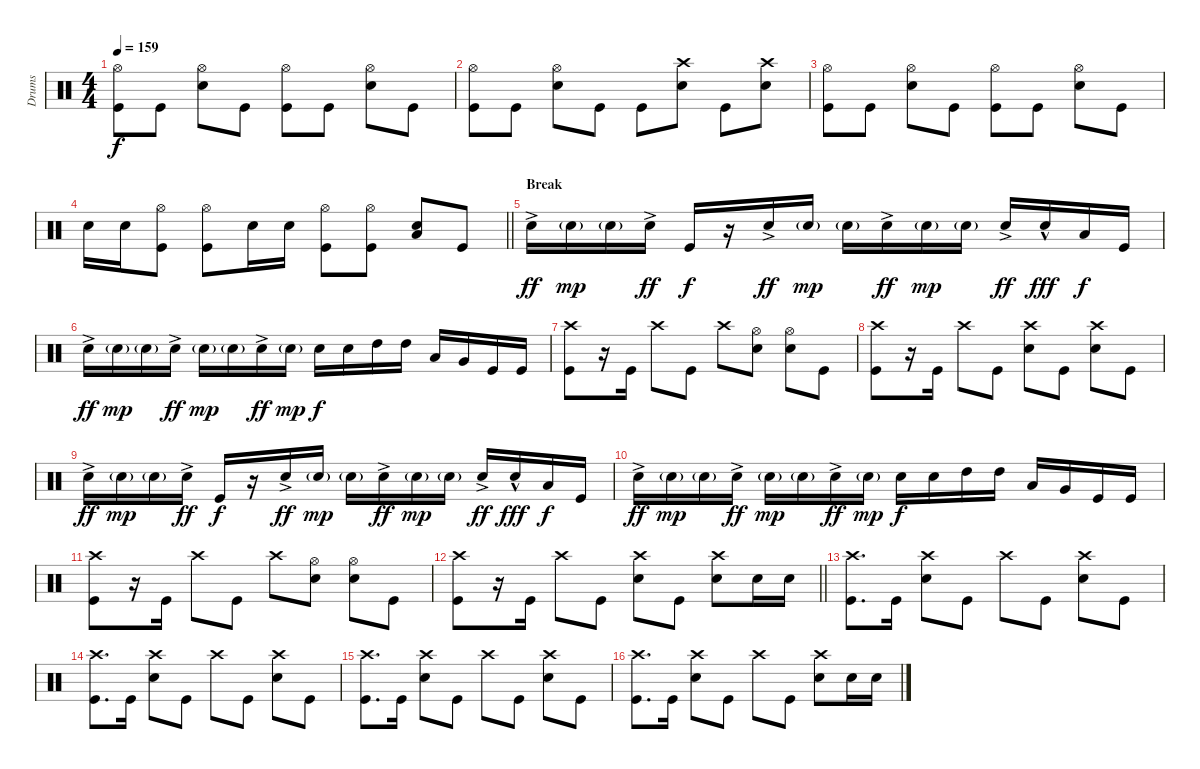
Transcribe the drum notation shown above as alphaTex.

\track ("Drums" "Drums") {instrument percussion}
\staff {score}
\articulation defaults
\ts (4 4)
\tempo 159
\clef neutral
\ks c
("Hi-Hat (open)" "Kick (hit)").8{dy f} "Kick (hit)".8 ("Hi-Hat (open)" "Snare (hit) 2").8 "Kick (hit)".8 ("Hi-Hat (open)" "Kick (hit)").8 "Kick (hit)".8 ("Hi-Hat (open)" "Snare (hit) 2").8 "Kick (hit)".8 |
("Hi-Hat (open)" "Kick (hit)").8 "Kick (hit)".8 ("Hi-Hat (open)" "Snare (hit) 2").8 "Kick (hit)".8 "Kick (hit)".8 ("Crash high (hit)" "Snare (hit) 2").8 "Kick (hit)".8 ("Crash high (hit)" "Snare (hit) 2").8 |
("Hi-Hat (open)" "Kick (hit)").8 "Kick (hit)".8 ("Hi-Hat (open)" "Snare (hit) 2").8 "Kick (hit)".8 ("Hi-Hat (open)" "Kick (hit)").8 "Kick (hit)".8 ("Hi-Hat (open)" "Snare (hit) 2").8 "Kick (hit)".8 |
\barLineRight lightlight "Snare (hit) 2".16 "Snare (hit) 2".16
("Hi-Hat (open)" "Kick (hit)").8 ("Hi-Hat (open)" "Kick (hit)").8 "Snare (hit) 2".16 "Snare (hit) 2".16 ("Hi-Hat (open)" "Kick (hit)").8 ("Hi-Hat (open)" "Kick (hit)").8 ("Low Tom (hit)" "Snare (hit) 2").8 "Kick (hit)".8 |
\section ("" "Break")
"Snare (hit) 2"{ac}.16{dy ff} "Snare (hit) 2"{g}.16{dy mp} "Snare (hit) 2"{g}.16 "Snare (hit) 2"{ac}.16{dy ff} "Kick (hit)".16{dy f} r.16 "Snare (hit) 2"{ac}.16{dy ff} "Snare (hit) 2"{g}.16{dy mp} "Snare (hit) 2"{g}.16 "Snare (hit) 2"{ac}.16{dy ff} "Snare (hit) 2"{g}.16{dy mp} "Snare (hit) 2"{g}.16 "Snare (hit) 2"{ac}.16{dy ff} "Snare (hit) 2"{hac}.16{dy fff} "Low Tom (hit)".16{dy f} "Kick (hit)".16 |
"Snare (hit) 2"{ac}.16{dy ff} "Snare (hit) 2"{g}.16{dy mp} "Snare (hit) 2"{g}.16 "Snare (hit) 2"{ac}.16{dy ff} "Snare (hit) 2"{g}.16{dy mp} "Snare (hit) 2"{g}.16 "Snare (hit) 2"{ac}.16{dy ff} "Snare (hit) 2"{g}.16{dy mp} "Snare (hit) 2".16{dy f} "Snare (hit) 2".16 "High Tom (hit)".16 "High Tom (hit)".16 "Low Tom (hit)".16 "Very Low Tom (hit)".16 "Kick (hit)".16 "Kick (hit)".16 |
("Crash high (hit)" "Kick (hit)").8 r.16 "Kick (hit)".16 "Crash high (hit)".8 "Kick (hit)".8 "Crash high (hit)".8 ("Hi-Hat (open)" "Snare (hit) 2").8 ("Hi-Hat (open)" "Snare (hit) 2").8 "Kick (hit)".8 |
("Crash high (hit)" "Kick (hit)").8 r.16 "Kick (hit)".16 "Crash high (hit)".8 "Kick (hit)".8 ("Crash high (hit)" "Snare (hit) 2").8 "Kick (hit)".8 ("Crash high (hit)" "Snare (hit) 2").8 "Kick (hit)".8 |
"Snare (hit) 2"{ac}.16{dy ff} "Snare (hit) 2"{g}.16{dy mp} "Snare (hit) 2"{g}.16 "Snare (hit) 2"{ac}.16{dy ff} "Kick (hit)".16{dy f} r.16 "Snare (hit) 2"{ac}.16{dy ff} "Snare (hit) 2"{g}.16{dy mp} "Snare (hit) 2"{g}.16 "Snare (hit) 2"{ac}.16{dy ff} "Snare (hit) 2"{g}.16{dy mp} "Snare (hit) 2"{g}.16 "Snare (hit) 2"{ac}.16{dy ff} "Snare (hit) 2"{hac}.16{dy fff} "Low Tom (hit)".16{dy f} "Kick (hit)".16 |
"Snare (hit) 2"{ac}.16{dy ff} "Snare (hit) 2"{g}.16{dy mp} "Snare (hit) 2"{g}.16 "Snare (hit) 2"{ac}.16{dy ff} "Snare (hit) 2"{g}.16{dy mp} "Snare (hit) 2"{g}.16 "Snare (hit) 2"{ac}.16{dy ff} "Snare (hit) 2"{g}.16{dy mp} "Snare (hit) 2".16{dy f} "Snare (hit) 2".16 "High Tom (hit)".16 "High Tom (hit)".16 "Low Tom (hit)".16 "Very Low Tom (hit)".16 "Kick (hit)".16 "Kick (hit)".16 |
("Crash high (hit)" "Kick (hit)").8 r.16 "Kick (hit)".16 "Crash high (hit)".8 "Kick (hit)".8 "Crash high (hit)".8 ("Hi-Hat (open)" "Snare (hit) 2").8 ("Hi-Hat (open)" "Snare (hit) 2").8 "Kick (hit)".8 |
\barLineRight lightlight
("Crash high (hit)" "Kick (hit)").8 r.16 "Kick (hit)".16 "Crash high (hit)".8 "Kick (hit)".8 ("Crash high (hit)" "Snare (hit) 2").8 "Kick (hit)".8 ("Crash high (hit)" "Snare (hit) 2").8 "Snare (hit) 2".16 "Snare (hit) 2".16 |
\section ("" "")
("Crash high (hit)" "Kick (hit)").8{d} "Kick (hit)".16 ("Crash high (hit)" "Snare (hit) 2").8 "Kick (hit)".8 "Crash high (hit)".8 "Kick (hit)".8 ("Crash high (hit)" "Snare (hit) 2").8 "Kick (hit)".8 |
("Crash high (hit)" "Kick (hit)").8{d} "Kick (hit)".16 ("Crash high (hit)" "Snare (hit) 2").8 "Kick (hit)".8 "Crash high (hit)".8 "Kick (hit)".8 ("Crash high (hit)" "Snare (hit) 2").8 "Kick (hit)".8 |
("Crash high (hit)" "Kick (hit)").8{d} "Kick (hit)".16 ("Crash high (hit)" "Snare (hit) 2").8 "Kick (hit)".8 "Crash high (hit)".8 "Kick (hit)".8 ("Crash high (hit)" "Snare (hit) 2").8 "Kick (hit)".8 |
("Crash high (hit)" "Kick (hit)").8{d} "Kick (hit)".16 ("Crash high (hit)" "Snare (hit) 2").8 "Kick (hit)".8 "Crash high (hit)".8 "Kick (hit)".8 ("Crash high (hit)" "Snare (hit) 2").8 "Snare (hit) 2".16 "Snare (hit) 2".16
